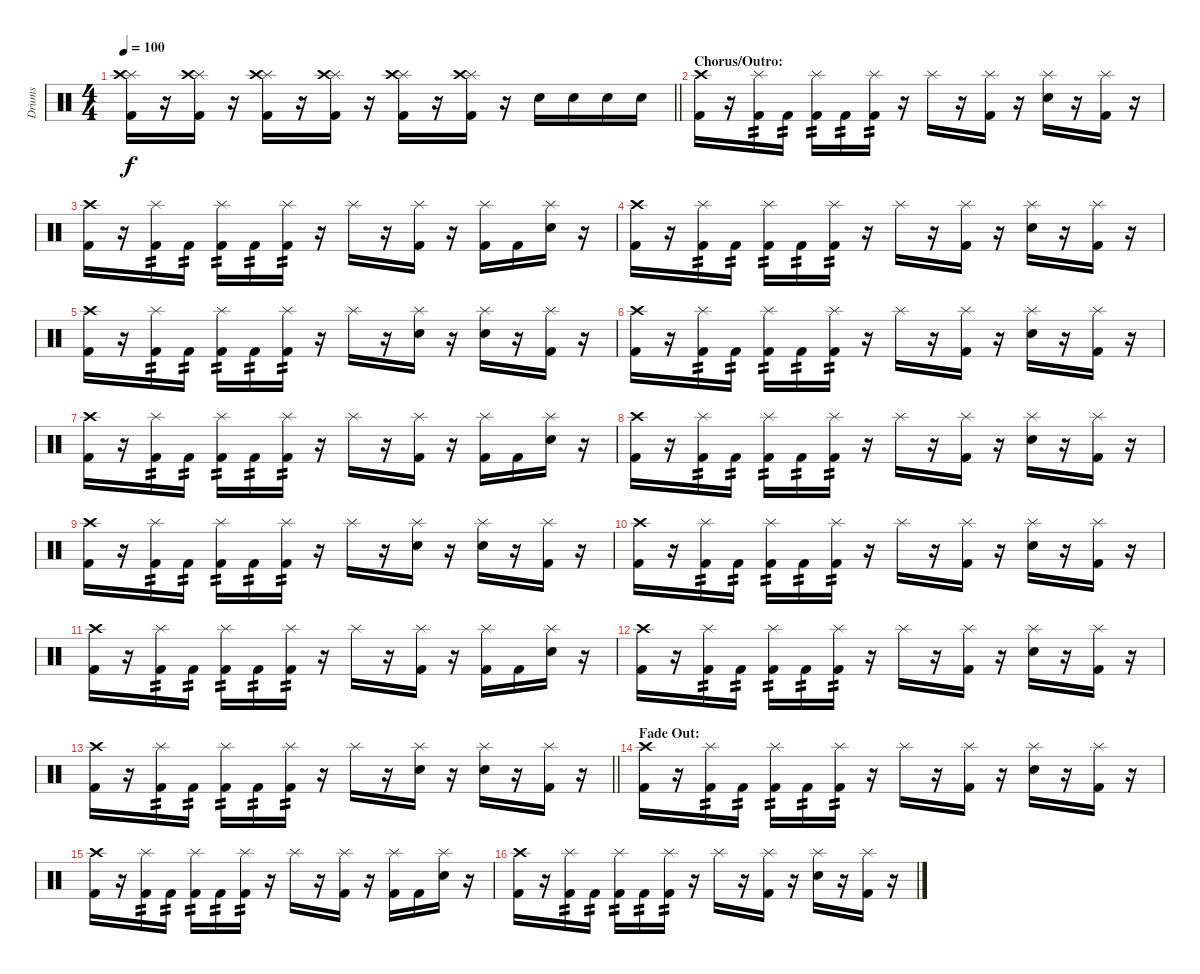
\track ("Drums" "Drums") {instrument percussion}
\staff {score}
\articulation defaults
\ts (4 4)
\tempo 100
\clef neutral
\barLineRight lightlight
\ks c
("Splash (hit)" "Crash high (hit)" "Kick (hit) 2").16{dy f volume 14} r.16 ("Splash (hit)" "Crash high (hit)" "Kick (hit) 2").16 r.16 ("Splash (hit)" "Crash high (hit)" "Kick (hit) 2").16 r.16 ("Splash (hit)" "Crash high (hit)" "Kick (hit) 2").16 r.16 ("Splash (hit)" "Crash high (hit)" "Kick (hit) 2").16 r.16 ("Splash (hit)" "Crash high (hit)" "Kick (hit) 2").16 r.16 "Electric Snare (hit)".16 "Electric Snare (hit)".16 "Electric Snare (hit)".16 "Electric Snare (hit)".16 |
\section ("" "Chorus/Outro:")
("Crash high (hit)" "Kick (hit) 2").16 r.16 ("Splash (hit)" "Kick (hit) 2").16{tp 2} "Kick (hit) 2".16{tp 2} ("Splash (hit)" "Kick (hit) 2").16{tp 2} "Kick (hit) 2".16{tp 2} ("Splash (hit)" "Kick (hit) 2").16{tp 2} r.16 "Splash (hit)".16 r.16 ("Splash (hit)" "Kick (hit) 2").16 r.16 ("Splash (hit)" "Electric Snare (hit)").16 r.16 ("Splash (hit)" "Kick (hit) 2").16 r.16 |
("Crash high (hit)" "Kick (hit) 2").16 r.16 ("Splash (hit)" "Kick (hit) 2").16{tp 2} "Kick (hit) 2".16{tp 2} ("Splash (hit)" "Kick (hit) 2").16{tp 2} "Kick (hit) 2".16{tp 2} ("Splash (hit)" "Kick (hit) 2").16{tp 2} r.16 "Splash (hit)".16 r.16 ("Splash (hit)" "Kick (hit) 2").16 r.16 ("Splash (hit)" "Kick (hit) 2").16 "Kick (hit) 2".16 ("Splash (hit)" "Electric Snare (hit)").16 r.16 |
("Crash high (hit)" "Kick (hit) 2").16 r.16 ("Splash (hit)" "Kick (hit) 2").16{tp 2} "Kick (hit) 2".16{tp 2} ("Splash (hit)" "Kick (hit) 2").16{tp 2} "Kick (hit) 2".16{tp 2} ("Splash (hit)" "Kick (hit) 2").16{tp 2} r.16 "Splash (hit)".16 r.16 ("Splash (hit)" "Kick (hit) 2").16 r.16 ("Splash (hit)" "Electric Snare (hit)").16 r.16 ("Splash (hit)" "Kick (hit) 2").16 r.16 |
("Crash high (hit)" "Kick (hit) 2").16 r.16 ("Splash (hit)" "Kick (hit) 2").16{tp 2} "Kick (hit) 2".16{tp 2} ("Splash (hit)" "Kick (hit) 2").16{tp 2} "Kick (hit) 2".16{tp 2} ("Splash (hit)" "Kick (hit) 2").16{tp 2} r.16 "Splash (hit)".16 r.16 ("Splash (hit)" "Electric Snare (hit)").16 r.16 ("Splash (hit)" "Electric Snare (hit)").16 r.16 ("Splash (hit)" "Kick (hit) 2").16 r.16 |
("Crash high (hit)" "Kick (hit) 2").16 r.16 ("Splash (hit)" "Kick (hit) 2").16{tp 2} "Kick (hit) 2".16{tp 2} ("Splash (hit)" "Kick (hit) 2").16{tp 2} "Kick (hit) 2".16{tp 2} ("Splash (hit)" "Kick (hit) 2").16{tp 2} r.16 "Splash (hit)".16 r.16 ("Splash (hit)" "Kick (hit) 2").16 r.16 ("Splash (hit)" "Electric Snare (hit)").16 r.16 ("Splash (hit)" "Kick (hit) 2").16 r.16 |
("Crash high (hit)" "Kick (hit) 2").16 r.16 ("Splash (hit)" "Kick (hit) 2").16{tp 2} "Kick (hit) 2".16{tp 2} ("Splash (hit)" "Kick (hit) 2").16{tp 2} "Kick (hit) 2".16{tp 2} ("Splash (hit)" "Kick (hit) 2").16{tp 2} r.16 "Splash (hit)".16 r.16 ("Splash (hit)" "Kick (hit) 2").16 r.16 ("Splash (hit)" "Kick (hit) 2").16 "Kick (hit) 2".16 ("Splash (hit)" "Electric Snare (hit)").16 r.16 |
("Crash high (hit)" "Kick (hit) 2").16 r.16 ("Splash (hit)" "Kick (hit) 2").16{tp 2} "Kick (hit) 2".16{tp 2} ("Splash (hit)" "Kick (hit) 2").16{tp 2} "Kick (hit) 2".16{tp 2} ("Splash (hit)" "Kick (hit) 2").16{tp 2} r.16 "Splash (hit)".16 r.16 ("Splash (hit)" "Kick (hit) 2").16 r.16 ("Splash (hit)" "Electric Snare (hit)").16 r.16 ("Splash (hit)" "Kick (hit) 2").16 r.16 |
("Crash high (hit)" "Kick (hit) 2").16 r.16 ("Splash (hit)" "Kick (hit) 2").16{tp 2} "Kick (hit) 2".16{tp 2} ("Splash (hit)" "Kick (hit) 2").16{tp 2} "Kick (hit) 2".16{tp 2} ("Splash (hit)" "Kick (hit) 2").16{tp 2} r.16 "Splash (hit)".16 r.16 ("Splash (hit)" "Electric Snare (hit)").16 r.16 ("Splash (hit)" "Electric Snare (hit)").16 r.16 ("Splash (hit)" "Kick (hit) 2").16 r.16 |
("Crash high (hit)" "Kick (hit) 2").16 r.16 ("Splash (hit)" "Kick (hit) 2").16{tp 2} "Kick (hit) 2".16{tp 2} ("Splash (hit)" "Kick (hit) 2").16{tp 2} "Kick (hit) 2".16{tp 2} ("Splash (hit)" "Kick (hit) 2").16{tp 2} r.16 "Splash (hit)".16 r.16 ("Splash (hit)" "Kick (hit) 2").16 r.16 ("Splash (hit)" "Electric Snare (hit)").16 r.16 ("Splash (hit)" "Kick (hit) 2").16 r.16 |
("Crash high (hit)" "Kick (hit) 2").16 r.16 ("Splash (hit)" "Kick (hit) 2").16{tp 2} "Kick (hit) 2".16{tp 2} ("Splash (hit)" "Kick (hit) 2").16{tp 2} "Kick (hit) 2".16{tp 2} ("Splash (hit)" "Kick (hit) 2").16{tp 2} r.16 "Splash (hit)".16 r.16 ("Splash (hit)" "Kick (hit) 2").16 r.16 ("Splash (hit)" "Kick (hit) 2").16 "Kick (hit) 2".16 ("Splash (hit)" "Electric Snare (hit)").16 r.16 |
("Crash high (hit)" "Kick (hit) 2").16 r.16 ("Splash (hit)" "Kick (hit) 2").16{tp 2} "Kick (hit) 2".16{tp 2} ("Splash (hit)" "Kick (hit) 2").16{tp 2} "Kick (hit) 2".16{tp 2} ("Splash (hit)" "Kick (hit) 2").16{tp 2} r.16 "Splash (hit)".16 r.16 ("Splash (hit)" "Kick (hit) 2").16 r.16 ("Splash (hit)" "Electric Snare (hit)").16 r.16 ("Splash (hit)" "Kick (hit) 2").16 r.16 |
\barLineRight lightlight
("Crash high (hit)" "Kick (hit) 2").16 r.16 ("Splash (hit)" "Kick (hit) 2").16{tp 2} "Kick (hit) 2".16{tp 2} ("Splash (hit)" "Kick (hit) 2").16{tp 2} "Kick (hit) 2".16{tp 2} ("Splash (hit)" "Kick (hit) 2").16{tp 2} r.16 "Splash (hit)".16 r.16 ("Splash (hit)" "Electric Snare (hit)").16 r.16 ("Splash (hit)" "Electric Snare (hit)").16 r.16 ("Splash (hit)" "Kick (hit) 2").16 r.16 |
\section ("" "Fade Out:")
("Crash high (hit)" "Kick (hit) 2").16{volume 9} r.16 ("Splash (hit)" "Kick (hit) 2").16{tp 2} "Kick (hit) 2".16{tp 2} ("Splash (hit)" "Kick (hit) 2").16{tp 2} "Kick (hit) 2".16{tp 2} ("Splash (hit)" "Kick (hit) 2").16{tp 2} r.16 "Splash (hit)".16 r.16 ("Splash (hit)" "Kick (hit) 2").16 r.16 ("Splash (hit)" "Electric Snare (hit)").16 r.16 ("Splash (hit)" "Kick (hit) 2").16 r.16 |
("Crash high (hit)" "Kick (hit) 2").16 r.16 ("Splash (hit)" "Kick (hit) 2").16{tp 2} "Kick (hit) 2".16{tp 2} ("Splash (hit)" "Kick (hit) 2").16{tp 2} "Kick (hit) 2".16{tp 2} ("Splash (hit)" "Kick (hit) 2").16{tp 2} r.16 "Splash (hit)".16 r.16 ("Splash (hit)" "Kick (hit) 2").16 r.16 ("Splash (hit)" "Kick (hit) 2").16 "Kick (hit) 2".16 ("Splash (hit)" "Electric Snare (hit)").16 r.16 |
("Crash high (hit)" "Kick (hit) 2").16 r.16 ("Splash (hit)" "Kick (hit) 2").16{tp 2} "Kick (hit) 2".16{tp 2} ("Splash (hit)" "Kick (hit) 2").16{tp 2} "Kick (hit) 2".16{tp 2} ("Splash (hit)" "Kick (hit) 2").16{tp 2} r.16 "Splash (hit)".16 r.16 ("Splash (hit)" "Kick (hit) 2").16 r.16 ("Splash (hit)" "Electric Snare (hit)").16 r.16 ("Splash (hit)" "Kick (hit) 2").16 r.16
